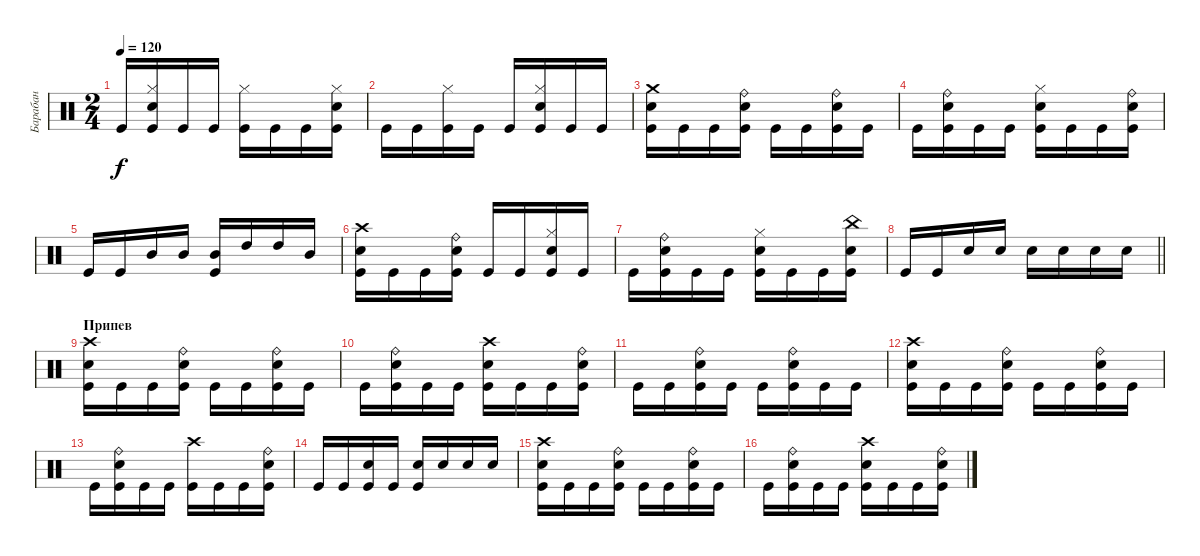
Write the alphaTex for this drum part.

\track ("Барабан" "Барабан") {instrument percussion}
\staff {score}
\articulation defaults
\ts (2 4)
\tempo 120
\clef neutral
\ks c "Kick (hit)".16{dy f}
("Hi-Hat (closed)" "Electric Snare (hit)" "Kick (hit)").16 "Kick (hit)".16 "Kick (hit)".16 ("Hi-Hat (closed)" "Kick (hit)").16 "Kick (hit)".16 "Kick (hit)".16 ("Hi-Hat (closed)" "Electric Snare (hit)" "Kick (hit)").16 |
"Kick (hit)".16 "Kick (hit)".16 ("Hi-Hat (closed)" "Kick (hit)").16 "Kick (hit)".16 "Kick (hit)".16 ("Hi-Hat (closed)" "Electric Snare (hit)" "Kick (hit)").16 "Kick (hit)".16 "Kick (hit)".16 |
("Crash medium (hit)" "Electric Snare (hit)" "Kick (hit)").16 "Kick (hit)".16 "Kick (hit)".16 ("Ride (bell)" "Electric Snare (hit)" "Kick (hit)").16 "Kick (hit)".16 "Kick (hit)".16 ("Ride (bell)" "Electric Snare (hit)" "Kick (hit)").16 "Kick (hit)".16 |
"Kick (hit)".16 ("Ride (bell)" "Electric Snare (hit)" "Kick (hit)").16 "Kick (hit)".16 "Kick (hit)".16 ("Hi-Hat (closed)" "Electric Snare (hit)" "Kick (hit)").16 "Kick (hit)".16 "Kick (hit)".16 ("Ride (bell)" "Electric Snare (hit)" "Kick (hit)").16 |
"Kick (hit)".16 "Kick (hit)".16 "Mid Tom (hit)".16 "Mid Tom (hit)".16 ("Mid Tom (hit)" "Kick (hit)").16 "High Tom (hit)".16 "High Tom (hit)".16 "Mid Tom (hit)".16 |
("Crash high (hit)" "Electric Snare (hit)" "Kick (hit)").16 "Kick (hit)".16 "Kick (hit)".16 ("Ride (bell)" "Electric Snare (hit)" "Kick (hit)").16 "Kick (hit)".16 "Kick (hit)".16 ("Hi-Hat (closed)" "Electric Snare (hit)" "Kick (hit)").16 "Kick (hit)".16 |
"Kick (hit)".16 ("Ride (bell)" "Electric Snare (hit)" "Kick (hit)").16 "Kick (hit)".16 "Kick (hit)".16 ("Hi-Hat (closed)" "Electric Snare (hit)" "Kick (hit)").16 "Kick (hit)".16 "Kick (hit)".16 ("China (hit)" "Electric Snare (hit)" "Kick (hit)").16 |
\barLineRight lightlight "Kick (hit)".16 "Kick (hit)".16 "Electric Snare (hit)".16 "Electric Snare (hit)".16 "Electric Snare (hit)".16 "Electric Snare (hit)".16 "Electric Snare (hit)".16 "Electric Snare (hit)".16
|
\section ("" "Припев")
("Crash high (hit)" "Electric Snare (hit)" "Kick (hit)").16 "Kick (hit)".16 "Kick (hit)".16 ("Ride (bell)" "Electric Snare (hit)" "Kick (hit)").16 "Kick (hit)".16 "Kick (hit)".16 ("Ride (bell)" "Electric Snare (hit)" "Kick (hit)").16 "Kick (hit)".16 |
"Kick (hit)".16 ("Ride (bell)" "Electric Snare (hit)" "Kick (hit)").16 "Kick (hit)".16 "Kick (hit)".16 ("Crash high (hit)" "Electric Snare (hit)" "Kick (hit)").16 "Kick (hit)".16 "Kick (hit)".16 ("Ride (bell)" "Electric Snare (hit)" "Kick (hit)").16 |
"Kick (hit)".16 "Kick (hit)".16 ("Ride (bell)" "Electric Snare (hit)" "Kick (hit)").16 "Kick (hit)".16 "Kick (hit)".16 ("Ride (bell)" "Electric Snare (hit)" "Kick (hit)").16 "Kick (hit)".16 "Kick (hit)".16 |
("Crash high (hit)" "Electric Snare (hit)" "Kick (hit)").16 "Kick (hit)".16 "Kick (hit)".16 ("Ride (bell)" "Electric Snare (hit)" "Kick (hit)").16 "Kick (hit)".16 "Kick (hit)".16 ("Ride (bell)" "Electric Snare (hit)" "Kick (hit)").16 "Kick (hit)".16 |
"Kick (hit)".16 ("Ride (bell)" "Electric Snare (hit)" "Kick (hit)").16 "Kick (hit)".16 "Kick (hit)".16 ("Crash high (hit)" "Kick (hit)").16 "Kick (hit)".16 "Kick (hit)".16 ("Ride (bell)" "Electric Snare (hit)" "Kick (hit)").16 |
"Kick (hit)".16 "Kick (hit)".16 ("Electric Snare (hit)" "Kick (hit)").16 "Kick (hit)".16 ("Electric Snare (hit)" "Kick (hit)").16 "Electric Snare (hit)".16 "Electric Snare (hit)".16 "Electric Snare (hit)".16 |
("Crash high (hit)" "Electric Snare (hit)" "Kick (hit)").16 "Kick (hit)".16 "Kick (hit)".16 ("Ride (bell)" "Electric Snare (hit)" "Kick (hit)").16 "Kick (hit)".16 "Kick (hit)".16 ("Ride (bell)" "Electric Snare (hit)" "Kick (hit)").16 "Kick (hit)".16 |
"Kick (hit)".16 ("Ride (bell)" "Electric Snare (hit)" "Kick (hit)").16 "Kick (hit)".16 "Kick (hit)".16 ("Crash high (hit)" "Electric Snare (hit)" "Kick (hit)").16 "Kick (hit)".16 "Kick (hit)".16 ("Ride (bell)" "Electric Snare (hit)" "Kick (hit)").16
